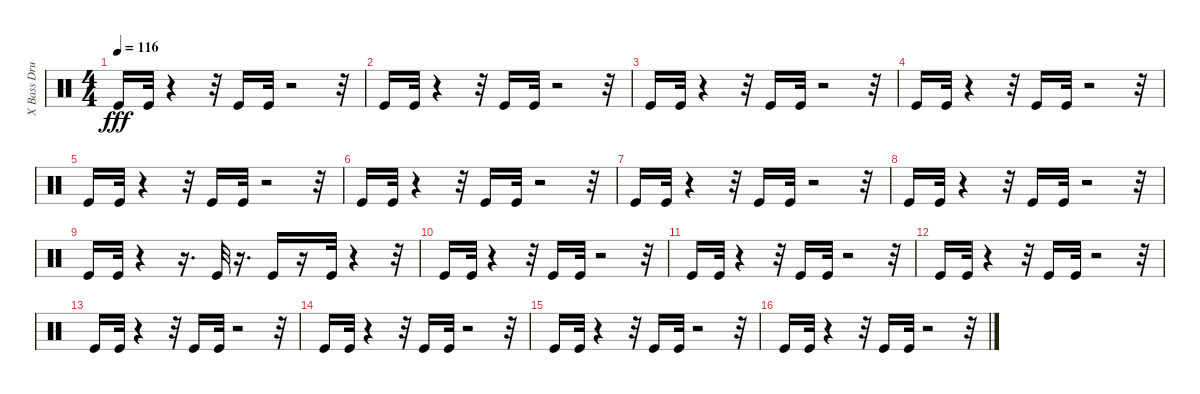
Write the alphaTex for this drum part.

\track ("X Bass Drum         " "X Bass Dru") {instrument percussion}
\staff {score}
\articulation defaults
\ts (4 4)
\tempo 116
\clef neutral
\ks c "Kick (hit)".16{dy fff} "Kick (hit)".32
r.4 r.32 "Kick (hit)".16 "Kick (hit)".32 r.2 r.32 |
"Kick (hit)".16 "Kick (hit)".32 r.4 r.32 "Kick (hit)".16 "Kick (hit)".32 r.2 r.32 |
"Kick (hit)".16 "Kick (hit)".32 r.4 r.32 "Kick (hit)".16 "Kick (hit)".32 r.2 r.32 |
"Kick (hit)".16 "Kick (hit)".32 r.4 r.32 "Kick (hit)".16 "Kick (hit)".32 r.2 r.32 |
"Kick (hit)".16 "Kick (hit)".32 r.4 r.32 "Kick (hit)".16 "Kick (hit)".32 r.2 r.32 |
"Kick (hit)".16 "Kick (hit)".32 r.4 r.32 "Kick (hit)".16 "Kick (hit)".32 r.2 r.32 |
"Kick (hit)".16 "Kick (hit)".32 r.4 r.32 "Kick (hit)".16 "Kick (hit)".32 r.2 r.32 |
"Kick (hit)".16 "Kick (hit)".32 r.4 r.32 "Kick (hit)".16 "Kick (hit)".32 r.2 r.32 |
"Kick (hit)".16 "Kick (hit)".32 r.4 r.16{d} "Kick (hit)".32 r.16{d} "Kick (hit)".16 r.16 "Kick (hit)".32 r.4 r.32 |
"Kick (hit)".16 "Kick (hit)".32 r.4 r.32 "Kick (hit)".16 "Kick (hit)".32 r.2 r.32 |
"Kick (hit)".16 "Kick (hit)".32 r.4 r.32 "Kick (hit)".16 "Kick (hit)".32 r.2 r.32 |
"Kick (hit)".16 "Kick (hit)".32 r.4 r.32 "Kick (hit)".16 "Kick (hit)".32 r.2 r.32 |
"Kick (hit)".16 "Kick (hit)".32 r.4 r.32 "Kick (hit)".16 "Kick (hit)".32 r.2 r.32 |
"Kick (hit)".16 "Kick (hit)".32 r.4 r.32 "Kick (hit)".16 "Kick (hit)".32 r.2 r.32 |
"Kick (hit)".16 "Kick (hit)".32 r.4 r.32 "Kick (hit)".16 "Kick (hit)".32 r.2 r.32 |
"Kick (hit)".16 "Kick (hit)".32 r.4 r.32 "Kick (hit)".16 "Kick (hit)".32 r.2 r.32
